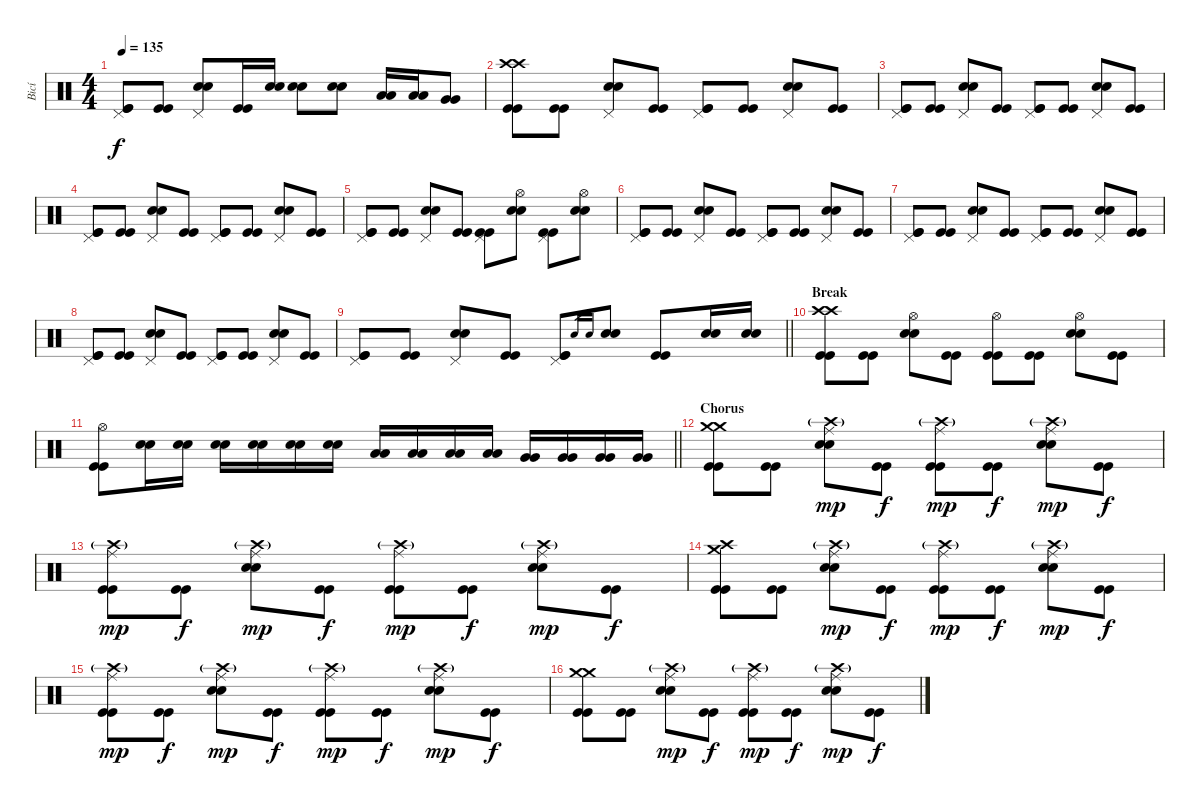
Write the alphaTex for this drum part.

\track ("Bicí" "Bicí") {instrument percussion}
\staff {score}
\articulation defaults
\ts (4 4)
\tempo 135
\clef neutral
\ks c
("Pedal Hi-Hat (hit)" "Kick (hit)" "Kick (hit)").8{dy f} ("Kick (hit)" "Kick (hit)").8 ("Pedal Hi-Hat (hit)" "Electric Snare (hit)" "Electric Snare (hit)").8 ("Kick (hit)" "Kick (hit)").16 ("Electric Snare (hit)" "Electric Snare (hit)").16 ("Electric Snare (hit)" "Electric Snare (hit)").8 ("Electric Snare (hit)" "Electric Snare (hit)").8 ("Low Tom (hit)" "Low Tom (hit)").16 ("Low Tom (hit)" "Low Tom (hit)").16 ("Very Low Tom (hit)" "Very Low Tom (hit)").8 |
("Crash high (hit)" "Crash high (hit)" "Kick (hit)" "Kick (hit)").8 ("Kick (hit)" "Kick (hit)").8 ("Pedal Hi-Hat (hit)" "Electric Snare (hit)" "Electric Snare (hit)").8 ("Kick (hit)" "Kick (hit)").8 ("Pedal Hi-Hat (hit)" "Kick (hit)" "Kick (hit)").8 ("Kick (hit)" "Kick (hit)").8 ("Pedal Hi-Hat (hit)" "Electric Snare (hit)" "Electric Snare (hit)").8 ("Kick (hit)" "Kick (hit)").8 |
("Pedal Hi-Hat (hit)" "Kick (hit)" "Kick (hit)").8 ("Kick (hit)" "Kick (hit)").8 ("Pedal Hi-Hat (hit)" "Electric Snare (hit)" "Electric Snare (hit)").8 ("Kick (hit)" "Kick (hit)").8 ("Pedal Hi-Hat (hit)" "Kick (hit)" "Kick (hit)").8 ("Kick (hit)" "Kick (hit)").8 ("Pedal Hi-Hat (hit)" "Electric Snare (hit)" "Electric Snare (hit)").8 ("Kick (hit)" "Kick (hit)").8 |
("Pedal Hi-Hat (hit)" "Kick (hit)" "Kick (hit)").8 ("Kick (hit)" "Kick (hit)").8 ("Pedal Hi-Hat (hit)" "Electric Snare (hit)" "Electric Snare (hit)").8 ("Kick (hit)" "Kick (hit)").8 ("Pedal Hi-Hat (hit)" "Kick (hit)" "Kick (hit)").8 ("Kick (hit)" "Kick (hit)").8 ("Pedal Hi-Hat (hit)" "Electric Snare (hit)" "Electric Snare (hit)").8 ("Kick (hit)" "Kick (hit)").8 |
("Pedal Hi-Hat (hit)" "Kick (hit)" "Kick (hit)").8 ("Kick (hit)" "Kick (hit)").8 ("Pedal Hi-Hat (hit)" "Electric Snare (hit)" "Electric Snare (hit)").8 ("Kick (hit)" "Kick (hit)").8 ("Pedal Hi-Hat (hit)" "Kick (hit)" "Kick (hit)").8 ("Hi-Hat (open)" "Electric Snare (hit)" "Electric Snare (hit)").8 ("Pedal Hi-Hat (hit)" "Kick (hit)" "Kick (hit)").8 ("Hi-Hat (open)" "Electric Snare (hit)" "Electric Snare (hit)").8 |
("Pedal Hi-Hat (hit)" "Kick (hit)" "Kick (hit)").8 ("Kick (hit)" "Kick (hit)").8 ("Pedal Hi-Hat (hit)" "Electric Snare (hit)" "Electric Snare (hit)").8 ("Kick (hit)" "Kick (hit)").8 ("Pedal Hi-Hat (hit)" "Kick (hit)" "Kick (hit)").8 ("Kick (hit)" "Kick (hit)").8 ("Pedal Hi-Hat (hit)" "Electric Snare (hit)" "Electric Snare (hit)").8 ("Kick (hit)" "Kick (hit)").8 |
("Pedal Hi-Hat (hit)" "Kick (hit)" "Kick (hit)").8 ("Kick (hit)" "Kick (hit)").8 ("Pedal Hi-Hat (hit)" "Electric Snare (hit)" "Electric Snare (hit)").8 ("Kick (hit)" "Kick (hit)").8 ("Pedal Hi-Hat (hit)" "Kick (hit)" "Kick (hit)").8 ("Kick (hit)" "Kick (hit)").8 ("Pedal Hi-Hat (hit)" "Electric Snare (hit)" "Electric Snare (hit)").8 ("Kick (hit)" "Kick (hit)").8 |
("Pedal Hi-Hat (hit)" "Kick (hit)" "Kick (hit)").8 ("Kick (hit)" "Kick (hit)").8 ("Pedal Hi-Hat (hit)" "Electric Snare (hit)" "Electric Snare (hit)").8 ("Kick (hit)" "Kick (hit)").8 ("Pedal Hi-Hat (hit)" "Kick (hit)" "Kick (hit)").8 ("Kick (hit)" "Kick (hit)").8 ("Pedal Hi-Hat (hit)" "Electric Snare (hit)" "Electric Snare (hit)").8 ("Kick (hit)" "Kick (hit)").8 |
\barLineRight lightlight
("Pedal Hi-Hat (hit)" "Kick (hit)" "Kick (hit)").8 ("Kick (hit)" "Kick (hit)").8 ("Pedal Hi-Hat (hit)" "Electric Snare (hit)" "Electric Snare (hit)").8 ("Kick (hit)" "Kick (hit)").8 ("Pedal Hi-Hat (hit)" "Kick (hit)" "Kick (hit)").8 "Electric Snare (hit)".16{gr} "Electric Snare (hit)".16{gr} ("Electric Snare (hit)" "Electric Snare (hit)").8 ("Kick (hit)" "Kick (hit)").8 ("Electric Snare (hit)" "Electric Snare (hit)").16 ("Electric Snare (hit)" "Electric Snare (hit)").16 |
\section ("" "Break")
("Crash high (hit)" "Crash high (hit)" "Kick (hit)" "Kick (hit)").8 ("Kick (hit)" "Kick (hit)").8 ("Hi-Hat (open)" "Electric Snare (hit)" "Electric Snare (hit)").8 ("Kick (hit)" "Kick (hit)").8 ("Hi-Hat (open)" "Kick (hit)" "Kick (hit)").8 ("Kick (hit)" "Kick (hit)").8 ("Hi-Hat (open)" "Electric Snare (hit)" "Electric Snare (hit)").8 ("Kick (hit)" "Kick (hit)").8 |
\barLineRight lightlight
("Hi-Hat (open)" "Kick (hit)" "Kick (hit)").8 ("Electric Snare (hit)" "Electric Snare (hit)").16 ("Electric Snare (hit)" "Electric Snare (hit)").16 ("Electric Snare (hit)" "Electric Snare (hit)").16 ("Electric Snare (hit)" "Electric Snare (hit)").16 ("Electric Snare (hit)" "Electric Snare (hit)").16 ("Electric Snare (hit)" "Electric Snare (hit)").16 ("Low Tom (hit)" "Low Tom (hit)").16 ("Low Tom (hit)" "Low Tom (hit)").16 ("Low Tom (hit)" "Low Tom (hit)").16 ("Low Tom (hit)" "Low Tom (hit)").16 ("Very Low Tom (hit)" "Very Low Tom (hit)").16 ("Very Low Tom (hit)" "Very Low Tom (hit)").16 ("Very Low Tom (hit)" "Very Low Tom (hit)").16 ("Very Low Tom (hit)" "Very Low Tom (hit)").16 |
\section ("" "Chorus")
("Crash medium (hit)" "Crash medium (hit)" "Kick (hit)" "Kick (hit)").8 ("Kick (hit)" "Kick (hit)").8 ("Crash high (hit)"{g} "Ride (middle)" "Electric Snare (hit)" "Electric Snare (hit)").8{dy mp} ("Kick (hit)" "Kick (hit)").8{dy f} ("Crash high (hit)"{g} "Ride (middle)" "Kick (hit)" "Kick (hit)").8{dy mp} ("Kick (hit)" "Kick (hit)").8{dy f} ("Crash high (hit)"{g} "Ride (middle)" "Electric Snare (hit)" "Electric Snare (hit)").8{dy mp} ("Kick (hit)" "Kick (hit)").8{dy f} |
("Crash high (hit)"{g} "Ride (middle)" "Kick (hit)" "Kick (hit)").8{dy mp} ("Kick (hit)" "Kick (hit)").8{dy f} ("Crash high (hit)"{g} "Ride (middle)" "Electric Snare (hit)" "Electric Snare (hit)").8{dy mp} ("Kick (hit)" "Kick (hit)").8{dy f} ("Crash high (hit)"{g} "Ride (middle)" "Kick (hit)" "Kick (hit)").8{dy mp} ("Kick (hit)" "Kick (hit)").8{dy f} ("Crash high (hit)"{g} "Ride (middle)" "Electric Snare (hit)" "Electric Snare (hit)").8{dy mp} ("Kick (hit)" "Kick (hit)").8{dy f} |
("Crash high (hit)" "Crash medium (hit)" "Kick (hit)" "Kick (hit)").8 ("Kick (hit)" "Kick (hit)").8 ("Crash high (hit)"{g} "Ride (middle)" "Electric Snare (hit)" "Electric Snare (hit)").8{dy mp} ("Kick (hit)" "Kick (hit)").8{dy f} ("Crash high (hit)"{g} "Ride (middle)" "Kick (hit)" "Kick (hit)").8{dy mp} ("Kick (hit)" "Kick (hit)").8{dy f} ("Crash high (hit)"{g} "Ride (middle)" "Electric Snare (hit)" "Electric Snare (hit)").8{dy mp} ("Kick (hit)" "Kick (hit)").8{dy f} |
("Crash high (hit)"{g} "Ride (middle)" "Kick (hit)" "Kick (hit)").8{dy mp} ("Kick (hit)" "Kick (hit)").8{dy f} ("Crash high (hit)"{g} "Ride (middle)" "Electric Snare (hit)" "Electric Snare (hit)").8{dy mp} ("Kick (hit)" "Kick (hit)").8{dy f} ("Crash high (hit)"{g} "Ride (middle)" "Kick (hit)" "Kick (hit)").8{dy mp} ("Kick (hit)" "Kick (hit)").8{dy f} ("Crash high (hit)"{g} "Ride (middle)" "Electric Snare (hit)" "Electric Snare (hit)").8{dy mp} ("Kick (hit)" "Kick (hit)").8{dy f} |
("Crash medium (hit)" "Crash medium (hit)" "Kick (hit)" "Kick (hit)").8 ("Kick (hit)" "Kick (hit)").8 ("Crash high (hit)"{g} "Ride (middle)" "Electric Snare (hit)" "Electric Snare (hit)").8{dy mp} ("Kick (hit)" "Kick (hit)").8{dy f} ("Crash high (hit)"{g} "Ride (middle)" "Kick (hit)" "Kick (hit)").8{dy mp} ("Kick (hit)" "Kick (hit)").8{dy f} ("Crash high (hit)"{g} "Ride (middle)" "Electric Snare (hit)" "Electric Snare (hit)").8{dy mp} ("Kick (hit)" "Kick (hit)").8{dy f}
